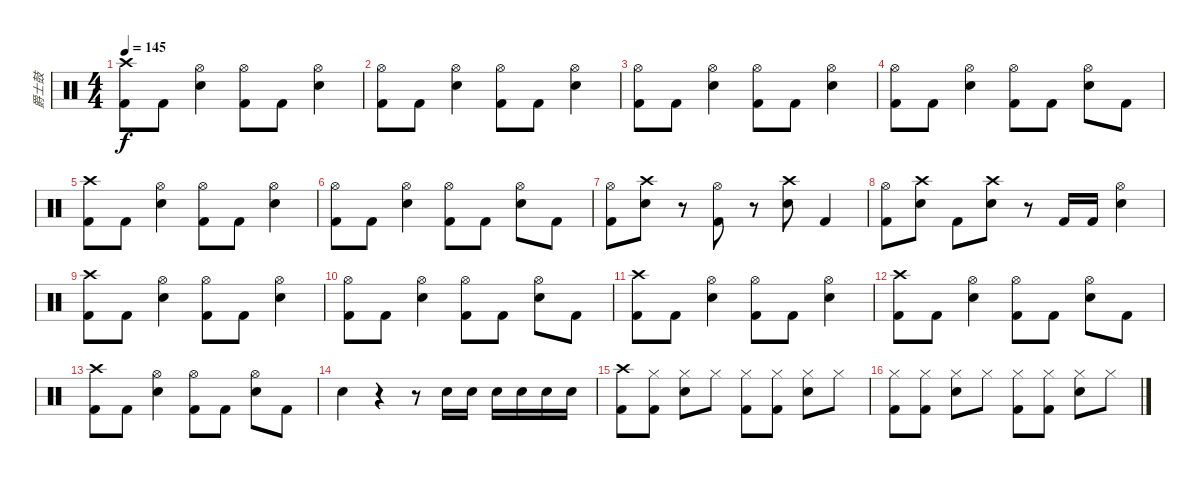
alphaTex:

\track ("爵士鼓" "爵士鼓") {instrument percussion}
\staff {score}
\articulation defaults
\ts (4 4)
\tempo 145
\clef neutral
\ks c
("Crash high (hit)" "Kick (hit) 2").8{dy f} "Kick (hit) 2".8 ("Hi-Hat (open)" "Electric Snare (hit)").4 ("Hi-Hat (open)" "Kick (hit) 2").8 "Kick (hit) 2".8 ("Hi-Hat (open)" "Electric Snare (hit)").4 |
("Hi-Hat (open)" "Kick (hit) 2").8 "Kick (hit) 2".8 ("Hi-Hat (open)" "Electric Snare (hit)").4 ("Hi-Hat (open)" "Kick (hit) 2").8 "Kick (hit) 2".8 ("Hi-Hat (open)" "Electric Snare (hit)").4 |
("Hi-Hat (open)" "Kick (hit) 2").8 "Kick (hit) 2".8 ("Hi-Hat (open)" "Electric Snare (hit)").4 ("Hi-Hat (open)" "Kick (hit) 2").8 "Kick (hit) 2".8 ("Hi-Hat (open)" "Electric Snare (hit)").4 |
("Hi-Hat (open)" "Kick (hit) 2").8 "Kick (hit) 2".8 ("Hi-Hat (open)" "Electric Snare (hit)").4 ("Hi-Hat (open)" "Kick (hit) 2").8 "Kick (hit) 2".8 ("Hi-Hat (open)" "Electric Snare (hit)").8 "Kick (hit) 2".8 |
("Crash high (hit)" "Kick (hit) 2").8 "Kick (hit) 2".8 ("Hi-Hat (open)" "Electric Snare (hit)").4 ("Hi-Hat (open)" "Kick (hit) 2").8 "Kick (hit) 2".8 ("Hi-Hat (open)" "Electric Snare (hit)").4 |
("Hi-Hat (open)" "Kick (hit) 2").8 "Kick (hit) 2".8 ("Hi-Hat (open)" "Electric Snare (hit)").4 ("Hi-Hat (open)" "Kick (hit) 2").8 "Kick (hit) 2".8 ("Hi-Hat (open)" "Electric Snare (hit)").8 "Kick (hit) 2".8 |
("Hi-Hat (open)" "Kick (hit) 2").8 ("Crash high (hit)" "Electric Snare (hit)").8 r.8 ("Hi-Hat (open)" "Kick (hit) 2").8 r.8 ("Crash high (hit)" "Electric Snare (hit)").8 "Kick (hit) 2".4 |
("Hi-Hat (open)" "Kick (hit) 2").8 ("Crash high (hit)" "Electric Snare (hit)").8 "Kick (hit) 2".8 ("Crash high (hit)" "Electric Snare (hit)").8 r.8 "Kick (hit) 2".16 "Kick (hit) 2".16 ("Hi-Hat (open)" "Electric Snare (hit)").4 |
("Crash high (hit)" "Kick (hit) 2").8 "Kick (hit) 2".8 ("Hi-Hat (open)" "Electric Snare (hit)").4 ("Hi-Hat (open)" "Kick (hit) 2").8 "Kick (hit) 2".8 ("Hi-Hat (open)" "Electric Snare (hit)").4 |
("Hi-Hat (open)" "Kick (hit) 2").8 "Kick (hit) 2".8 ("Hi-Hat (open)" "Electric Snare (hit)").4 ("Hi-Hat (open)" "Kick (hit) 2").8 "Kick (hit) 2".8 ("Hi-Hat (open)" "Electric Snare (hit)").8 "Kick (hit) 2".8 |
("Crash high (hit)" "Kick (hit) 2").8 "Kick (hit) 2".8 ("Hi-Hat (open)" "Electric Snare (hit)").4 ("Hi-Hat (open)" "Kick (hit) 2").8 "Kick (hit) 2".8 ("Hi-Hat (open)" "Electric Snare (hit)").4 |
("Crash high (hit)" "Kick (hit) 2").8 "Kick (hit) 2".8 ("Hi-Hat (open)" "Electric Snare (hit)").4 ("Hi-Hat (open)" "Kick (hit) 2").8 "Kick (hit) 2".8 ("Hi-Hat (open)" "Electric Snare (hit)").8 "Kick (hit) 2".8 |
("Crash high (hit)" "Kick (hit) 2").8 "Kick (hit) 2".8 ("Hi-Hat (open)" "Electric Snare (hit)").4 ("Hi-Hat (open)" "Kick (hit) 2").8 "Kick (hit) 2".8 ("Hi-Hat (open)" "Electric Snare (hit)").8 "Kick (hit) 2".8 |
"Electric Snare (hit)".4 r.4 r.8 "Electric Snare (hit)".16 "Electric Snare (hit)".16 "Electric Snare (hit)".16 "Electric Snare (hit)".16 "Electric Snare (hit)".16 "Electric Snare (hit)".16 |
("Crash high (hit)" "Kick (hit) 2").8 ("Hi-Hat (closed)" "Kick (hit) 2").8 ("Hi-Hat (closed)" "Electric Snare (hit)").8 "Hi-Hat (closed)".8 ("Hi-Hat (closed)" "Kick (hit) 2").8 ("Hi-Hat (closed)" "Kick (hit) 2").8 ("Hi-Hat (closed)" "Electric Snare (hit)").8 "Hi-Hat (closed)".8 |
("Hi-Hat (closed)" "Kick (hit) 2").8 ("Hi-Hat (closed)" "Kick (hit) 2").8 ("Hi-Hat (closed)" "Electric Snare (hit)").8 "Hi-Hat (closed)".8 ("Hi-Hat (closed)" "Kick (hit) 2").8 ("Hi-Hat (closed)" "Kick (hit) 2").8 ("Hi-Hat (closed)" "Electric Snare (hit)").8 "Hi-Hat (closed)".8
